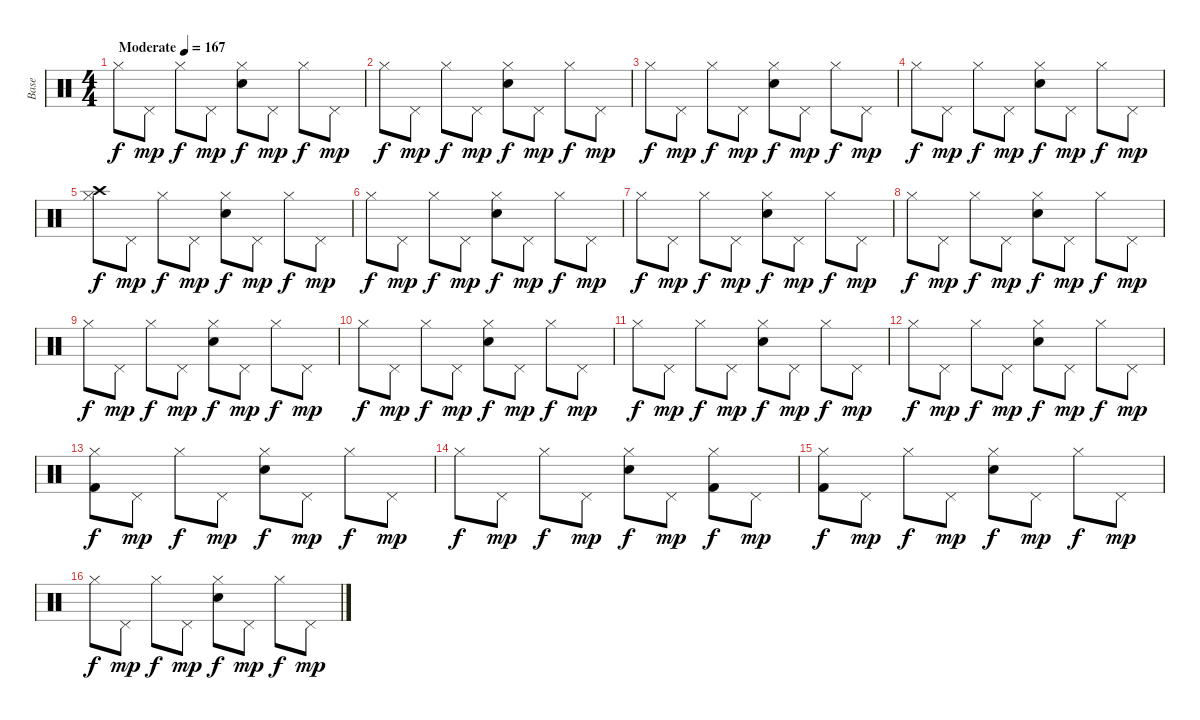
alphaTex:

\track ("Base" "Base") {instrument percussion}
\staff {score}
\articulation defaults
\ts (4 4)
\tempo (167 "Moderate")
\clef neutral
\ks c "Hi-Hat (closed)".8{dy f} "Pedal Hi-Hat (hit)".8{dy mp} "Hi-Hat (closed)".8{dy f} "Pedal Hi-Hat (hit)".8{dy mp}
("Electric Snare (hit)" "Hi-Hat (closed)").8{dy f} "Pedal Hi-Hat (hit)".8{dy mp} "Hi-Hat (closed)".8{dy f} "Pedal Hi-Hat (hit)".8{dy mp} |
"Hi-Hat (closed)".8{dy f} "Pedal Hi-Hat (hit)".8{dy mp} "Hi-Hat (closed)".8{dy f} "Pedal Hi-Hat (hit)".8{dy mp} ("Electric Snare (hit)" "Hi-Hat (closed)").8{dy f} "Pedal Hi-Hat (hit)".8{dy mp} "Hi-Hat (closed)".8{dy f} "Pedal Hi-Hat (hit)".8{dy mp} |
"Hi-Hat (closed)".8{dy f} "Pedal Hi-Hat (hit)".8{dy mp} "Hi-Hat (closed)".8{dy f} "Pedal Hi-Hat (hit)".8{dy mp} ("Electric Snare (hit)" "Hi-Hat (closed)").8{dy f} "Pedal Hi-Hat (hit)".8{dy mp} "Hi-Hat (closed)".8{dy f} "Pedal Hi-Hat (hit)".8{dy mp} |
"Hi-Hat (closed)".8{dy f} "Pedal Hi-Hat (hit)".8{dy mp} "Hi-Hat (closed)".8{dy f} "Pedal Hi-Hat (hit)".8{dy mp} ("Electric Snare (hit)" "Hi-Hat (closed)").8{dy f} "Pedal Hi-Hat (hit)".8{dy mp} "Hi-Hat (closed)".8{dy f} "Pedal Hi-Hat (hit)".8{dy mp} |
("Hi-Hat (closed)" "Crash high (hit)").8{dy f} "Pedal Hi-Hat (hit)".8{dy mp} "Hi-Hat (closed)".8{dy f} "Pedal Hi-Hat (hit)".8{dy mp} ("Electric Snare (hit)" "Hi-Hat (closed)").8{dy f} "Pedal Hi-Hat (hit)".8{dy mp} "Hi-Hat (closed)".8{dy f} "Pedal Hi-Hat (hit)".8{dy mp} |
"Hi-Hat (closed)".8{dy f} "Pedal Hi-Hat (hit)".8{dy mp} "Hi-Hat (closed)".8{dy f} "Pedal Hi-Hat (hit)".8{dy mp} ("Electric Snare (hit)" "Hi-Hat (closed)").8{dy f} "Pedal Hi-Hat (hit)".8{dy mp} "Hi-Hat (closed)".8{dy f} "Pedal Hi-Hat (hit)".8{dy mp} |
"Hi-Hat (closed)".8{dy f} "Pedal Hi-Hat (hit)".8{dy mp} "Hi-Hat (closed)".8{dy f} "Pedal Hi-Hat (hit)".8{dy mp} ("Electric Snare (hit)" "Hi-Hat (closed)").8{dy f} "Pedal Hi-Hat (hit)".8{dy mp} "Hi-Hat (closed)".8{dy f} "Pedal Hi-Hat (hit)".8{dy mp} |
"Hi-Hat (closed)".8{dy f} "Pedal Hi-Hat (hit)".8{dy mp} "Hi-Hat (closed)".8{dy f} "Pedal Hi-Hat (hit)".8{dy mp} ("Electric Snare (hit)" "Hi-Hat (closed)").8{dy f} "Pedal Hi-Hat (hit)".8{dy mp} "Hi-Hat (closed)".8{dy f} "Pedal Hi-Hat (hit)".8{dy mp} |
"Hi-Hat (closed)".8{dy f} "Pedal Hi-Hat (hit)".8{dy mp} "Hi-Hat (closed)".8{dy f} "Pedal Hi-Hat (hit)".8{dy mp} ("Electric Snare (hit)" "Hi-Hat (closed)").8{dy f} "Pedal Hi-Hat (hit)".8{dy mp} "Hi-Hat (closed)".8{dy f} "Pedal Hi-Hat (hit)".8{dy mp} |
"Hi-Hat (closed)".8{dy f} "Pedal Hi-Hat (hit)".8{dy mp} "Hi-Hat (closed)".8{dy f} "Pedal Hi-Hat (hit)".8{dy mp} ("Electric Snare (hit)" "Hi-Hat (closed)").8{dy f} "Pedal Hi-Hat (hit)".8{dy mp} "Hi-Hat (closed)".8{dy f} "Pedal Hi-Hat (hit)".8{dy mp} |
"Hi-Hat (closed)".8{dy f} "Pedal Hi-Hat (hit)".8{dy mp} "Hi-Hat (closed)".8{dy f} "Pedal Hi-Hat (hit)".8{dy mp} ("Electric Snare (hit)" "Hi-Hat (closed)").8{dy f} "Pedal Hi-Hat (hit)".8{dy mp} "Hi-Hat (closed)".8{dy f} "Pedal Hi-Hat (hit)".8{dy mp} |
"Hi-Hat (closed)".8{dy f} "Pedal Hi-Hat (hit)".8{dy mp} "Hi-Hat (closed)".8{dy f} "Pedal Hi-Hat (hit)".8{dy mp} ("Electric Snare (hit)" "Hi-Hat (closed)").8{dy f} "Pedal Hi-Hat (hit)".8{dy mp} "Hi-Hat (closed)".8{dy f} "Pedal Hi-Hat (hit)".8{dy mp} |
("Hi-Hat (closed)" "Kick (hit) 2").8{dy f} "Pedal Hi-Hat (hit)".8{dy mp} "Hi-Hat (closed)".8{dy f} "Pedal Hi-Hat (hit)".8{dy mp} ("Electric Snare (hit)" "Hi-Hat (closed)").8{dy f} "Pedal Hi-Hat (hit)".8{dy mp} "Hi-Hat (closed)".8{dy f} "Pedal Hi-Hat (hit)".8{dy mp} |
"Hi-Hat (closed)".8{dy f} "Pedal Hi-Hat (hit)".8{dy mp} "Hi-Hat (closed)".8{dy f} "Pedal Hi-Hat (hit)".8{dy mp} ("Electric Snare (hit)" "Hi-Hat (closed)").8{dy f} "Pedal Hi-Hat (hit)".8{dy mp} ("Hi-Hat (closed)" "Kick (hit) 2").8{dy f} "Pedal Hi-Hat (hit)".8{dy mp} |
("Hi-Hat (closed)" "Kick (hit) 2").8{dy f} "Pedal Hi-Hat (hit)".8{dy mp} "Hi-Hat (closed)".8{dy f} "Pedal Hi-Hat (hit)".8{dy mp} ("Electric Snare (hit)" "Hi-Hat (closed)").8{dy f} "Pedal Hi-Hat (hit)".8{dy mp} "Hi-Hat (closed)".8{dy f} "Pedal Hi-Hat (hit)".8{dy mp} |
"Hi-Hat (closed)".8{dy f} "Pedal Hi-Hat (hit)".8{dy mp} "Hi-Hat (closed)".8{dy f} "Pedal Hi-Hat (hit)".8{dy mp} ("Electric Snare (hit)" "Hi-Hat (closed)").8{dy f} "Pedal Hi-Hat (hit)".8{dy mp} "Hi-Hat (closed)".8{dy f} "Pedal Hi-Hat (hit)".8{dy mp}
